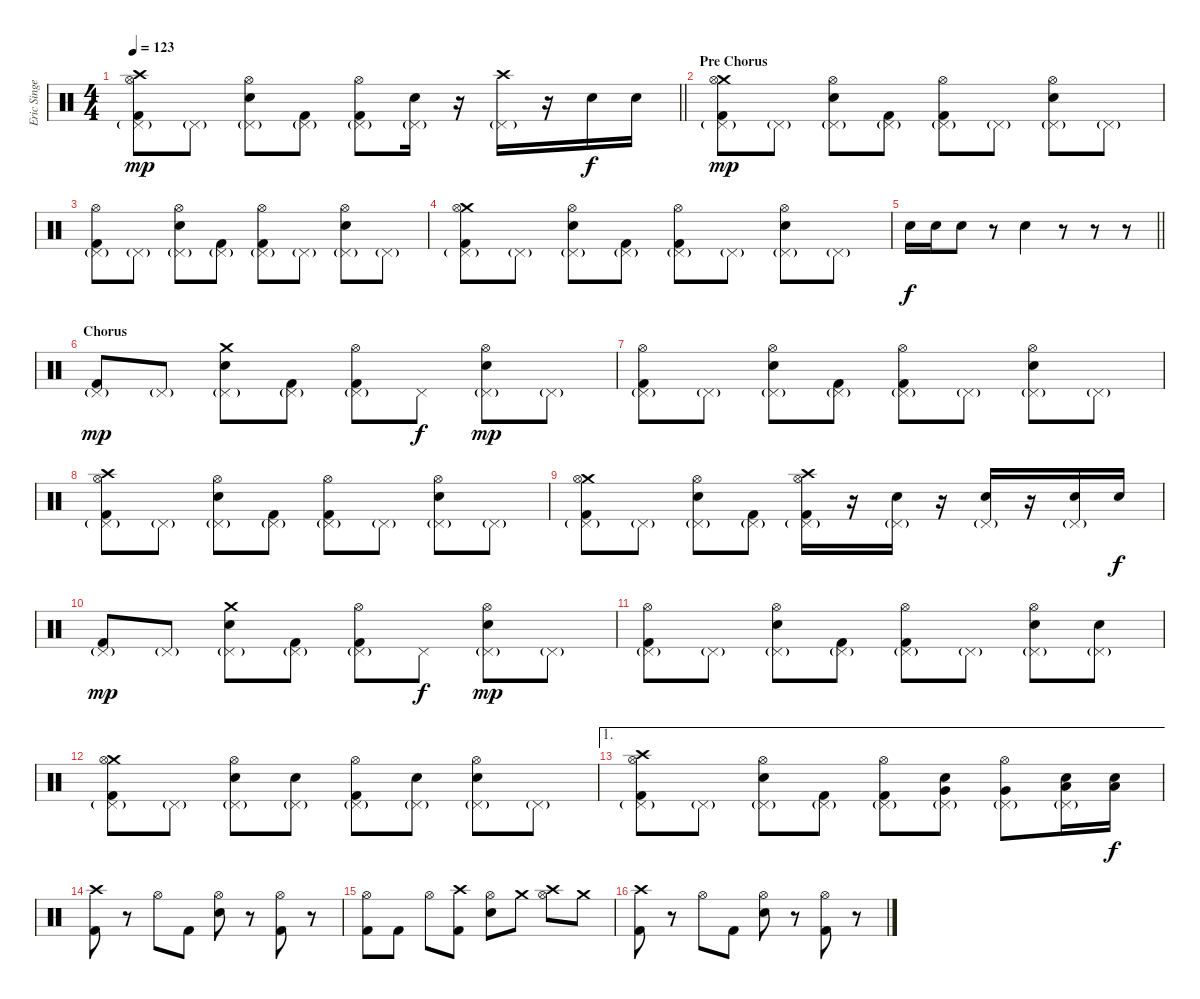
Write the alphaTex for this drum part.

\track ("Eric Singer" "Eric Singe") {instrument percussion}
\staff {score}
\articulation defaults
\ts (4 4)
\tempo 123
\clef neutral
\barLineRight lightlight
\ks c
("Crash high (hit)" "Hi-Hat (open)" "Pedal Hi-Hat (hit)"{g} "Kick (hit) 2").8{dy mp} "Pedal Hi-Hat (hit)"{g}.8 ("Hi-Hat (open)" "Pedal Hi-Hat (hit)"{g} "Snare (hit) 2").8 ("Pedal Hi-Hat (hit)"{g} "Kick (hit) 2").8 ("Hi-Hat (open)" "Pedal Hi-Hat (hit)"{g} "Kick (hit) 2").8 ("Pedal Hi-Hat (hit)"{g} "Snare (hit) 2").16 r.16 ("Crash high (hit)" "Pedal Hi-Hat (hit)"{g}).16 r.16 "Snare (hit) 2".16{dy f} "Snare (hit) 2".16 |
\section ("" "Pre Chorus")
("Crash medium (hit)" "Hi-Hat (open)" "Pedal Hi-Hat (hit)"{g} "Kick (hit) 2").8{dy mp} "Pedal Hi-Hat (hit)"{g}.8 ("Hi-Hat (open)" "Pedal Hi-Hat (hit)"{g} "Snare (hit) 2").8 ("Pedal Hi-Hat (hit)"{g} "Kick (hit) 2").8 ("Hi-Hat (open)" "Pedal Hi-Hat (hit)"{g} "Kick (hit) 2").8 "Pedal Hi-Hat (hit)"{g}.8 ("Hi-Hat (open)" "Pedal Hi-Hat (hit)"{g} "Snare (hit) 2").8 "Pedal Hi-Hat (hit)"{g}.8 |
("Hi-Hat (open)" "Pedal Hi-Hat (hit)"{g} "Kick (hit) 2").8 "Pedal Hi-Hat (hit)"{g}.8 ("Hi-Hat (open)" "Pedal Hi-Hat (hit)"{g} "Snare (hit) 2").8 ("Pedal Hi-Hat (hit)"{g} "Kick (hit) 2").8 ("Hi-Hat (open)" "Pedal Hi-Hat (hit)"{g} "Kick (hit) 2").8 "Pedal Hi-Hat (hit)"{g}.8 ("Hi-Hat (open)" "Pedal Hi-Hat (hit)"{g} "Snare (hit) 2").8 "Pedal Hi-Hat (hit)"{g}.8 |
("Crash medium (hit)" "Hi-Hat (open)" "Pedal Hi-Hat (hit)"{g} "Kick (hit) 2").8 "Pedal Hi-Hat (hit)"{g}.8 ("Hi-Hat (open)" "Pedal Hi-Hat (hit)"{g} "Snare (hit) 2").8 ("Pedal Hi-Hat (hit)"{g} "Kick (hit) 2").8 ("Hi-Hat (open)" "Pedal Hi-Hat (hit)"{g} "Kick (hit) 2").8 "Pedal Hi-Hat (hit)"{g}.8 ("Hi-Hat (open)" "Pedal Hi-Hat (hit)"{g} "Snare (hit) 2").8 "Pedal Hi-Hat (hit)"{g}.8 |
\barLineRight lightlight "Snare (hit) 2".16{dy f} "Snare (hit) 2".16 "Snare (hit) 2".8
r.8 "Snare (hit) 2".4 r.8 r.8 r.8 |
\section ("" "Chorus")
("Pedal Hi-Hat (hit)"{g} "Kick (hit) 2").8{dy mp} "Pedal Hi-Hat (hit)"{g}.8 ("Pedal Hi-Hat (hit)"{g} "Crash medium (hit)" "Snare (hit) 2").8 ("Pedal Hi-Hat (hit)"{g} "Kick (hit) 2").8 ("Pedal Hi-Hat (hit)"{g} "Hi-Hat (open)" "Kick (hit) 2").8 "Pedal Hi-Hat (hit)".8{dy f} ("Pedal Hi-Hat (hit)"{g} "Hi-Hat (open)" "Snare (hit) 2").8{dy mp} "Pedal Hi-Hat (hit)"{g}.8 |
("Hi-Hat (open)" "Pedal Hi-Hat (hit)"{g} "Kick (hit) 2").8 "Pedal Hi-Hat (hit)"{g}.8 ("Hi-Hat (open)" "Pedal Hi-Hat (hit)"{g} "Snare (hit) 2").8 ("Pedal Hi-Hat (hit)"{g} "Kick (hit) 2").8 ("Hi-Hat (open)" "Pedal Hi-Hat (hit)"{g} "Kick (hit) 2").8 "Pedal Hi-Hat (hit)"{g}.8 ("Hi-Hat (open)" "Pedal Hi-Hat (hit)"{g} "Snare (hit) 2").8 "Pedal Hi-Hat (hit)"{g}.8 |
("Crash high (hit)" "Hi-Hat (open)" "Pedal Hi-Hat (hit)"{g} "Kick (hit) 2").8 "Pedal Hi-Hat (hit)"{g}.8 ("Hi-Hat (open)" "Pedal Hi-Hat (hit)"{g} "Snare (hit) 2").8 ("Pedal Hi-Hat (hit)"{g} "Kick (hit) 2").8 ("Hi-Hat (open)" "Pedal Hi-Hat (hit)"{g} "Kick (hit) 2").8 "Pedal Hi-Hat (hit)"{g}.8 ("Hi-Hat (open)" "Pedal Hi-Hat (hit)"{g} "Snare (hit) 2").8 "Pedal Hi-Hat (hit)"{g}.8 |
("Crash medium (hit)" "Hi-Hat (open)" "Pedal Hi-Hat (hit)"{g} "Kick (hit) 2").8 "Pedal Hi-Hat (hit)"{g}.8 ("Hi-Hat (open)" "Pedal Hi-Hat (hit)"{g} "Snare (hit) 2").8 ("Pedal Hi-Hat (hit)"{g} "Kick (hit) 2").8 ("Crash high (hit)" "Hi-Hat (open)" "Pedal Hi-Hat (hit)"{g} "Kick (hit) 2").16 r.16 ("Pedal Hi-Hat (hit)"{g} "Snare (hit) 2").16 r.16 ("Pedal Hi-Hat (hit)"{g} "Snare (hit) 2").16 r.16 ("Pedal Hi-Hat (hit)"{g} "Snare (hit) 2").16 "Snare (hit) 2".16{dy f} |
("Pedal Hi-Hat (hit)"{g} "Kick (hit) 2").8{dy mp} "Pedal Hi-Hat (hit)"{g}.8 ("Pedal Hi-Hat (hit)"{g} "Crash medium (hit)" "Snare (hit) 2").8 ("Pedal Hi-Hat (hit)"{g} "Kick (hit) 2").8 ("Pedal Hi-Hat (hit)"{g} "Hi-Hat (open)" "Kick (hit) 2").8 "Pedal Hi-Hat (hit)".8{dy f} ("Pedal Hi-Hat (hit)"{g} "Hi-Hat (open)" "Snare (hit) 2").8{dy mp} "Pedal Hi-Hat (hit)"{g}.8 |
("Hi-Hat (open)" "Pedal Hi-Hat (hit)"{g} "Kick (hit) 2").8 "Pedal Hi-Hat (hit)"{g}.8 ("Hi-Hat (open)" "Pedal Hi-Hat (hit)"{g} "Snare (hit) 2").8 ("Pedal Hi-Hat (hit)"{g} "Kick (hit) 2").8 ("Hi-Hat (open)" "Pedal Hi-Hat (hit)"{g} "Kick (hit) 2").8 "Pedal Hi-Hat (hit)"{g}.8 ("Hi-Hat (open)" "Pedal Hi-Hat (hit)"{g} "Snare (hit) 2").8 ("Pedal Hi-Hat (hit)"{g} "Snare (hit) 2").8 |
("Crash medium (hit)" "Hi-Hat (open)" "Pedal Hi-Hat (hit)"{g} "Kick (hit) 2").8 "Pedal Hi-Hat (hit)"{g}.8 ("Hi-Hat (open)" "Pedal Hi-Hat (hit)"{g} "Snare (hit) 2").8 ("Pedal Hi-Hat (hit)"{g} "Snare (hit) 2").8 ("Hi-Hat (open)" "Pedal Hi-Hat (hit)"{g} "Kick (hit) 2").8 ("Pedal Hi-Hat (hit)"{g} "Snare (hit) 2").8 ("Hi-Hat (open)" "Pedal Hi-Hat (hit)"{g} "Snare (hit) 2").8 "Pedal Hi-Hat (hit)"{g}.8 |
\ae 1
("Crash high (hit)" "Hi-Hat (open)" "Pedal Hi-Hat (hit)"{g} "Kick (hit) 2").8 "Pedal Hi-Hat (hit)"{g}.8 ("Hi-Hat (open)" "Pedal Hi-Hat (hit)"{g} "Snare (hit) 2").8 ("Pedal Hi-Hat (hit)"{g} "Kick (hit) 2").8 ("Hi-Hat (open)" "Pedal Hi-Hat (hit)"{g} "Kick (hit) 2").8 ("Very Low Tom (hit)" "Pedal Hi-Hat (hit)"{g} "Snare (hit) 2").8 ("Very Low Tom (hit)" "Hi-Hat (open)" "Pedal Hi-Hat (hit)"{g}).8 ("Low Tom (hit)" "Pedal Hi-Hat (hit)"{g} "Snare (hit) 2").16 ("Low Tom (hit)" "Snare (hit) 2").16{dy f} |
("Crash high (hit)" "Kick (hit) 2").8 r.8 "Hi-Hat (open)".8 "Kick (hit) 2".8 ("Hi-Hat (open)" "Snare (hit) 2").8 r.8 ("Hi-Hat (open)" "Kick (hit) 2").8 r.8 |
("Hi-Hat (open)" "Kick (hit) 2").8 "Kick (hit) 2".8 "Hi-Hat (open)".8 ("Crash high (hit)" "Kick (hit) 2").8 ("Hi-Hat (open)" "Snare (hit) 2").8 "Crash medium (hit)".8 ("Crash high (hit)" "Hi-Hat (open)").8 "Crash medium (hit)".8 |
("Crash high (hit)" "Kick (hit) 2").8 r.8 "Hi-Hat (open)".8 "Kick (hit) 2".8 ("Hi-Hat (open)" "Snare (hit) 2").8 r.8 ("Hi-Hat (open)" "Kick (hit) 2").8 r.8
